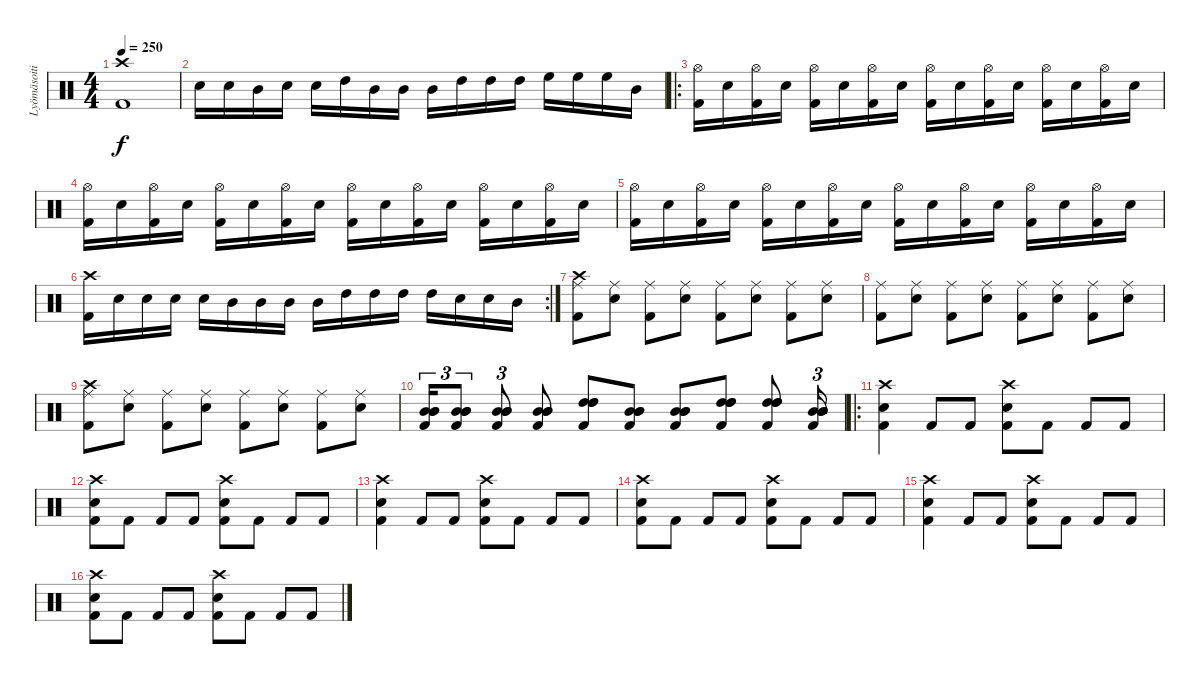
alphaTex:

\track ("Lyömäsoitin" "Lyömäsoiti") {instrument percussion}
\staff {score}
\articulation defaults
\ts (4 4)
\tempo 250
\clef neutral
\ks c
("Crash high (hit)" "Kick (hit) 2").1{dy f} |
"Electric Snare (hit)".16 "Electric Snare (hit)".16 "Mid Tom (hit)".16 "Electric Snare (hit)".16 "Electric Snare (hit)".16 "High Tom (hit)".16 "Mid Tom (hit)".16 "Mid Tom (hit)".16 "Mid Tom (hit)".16 "High Tom (hit)".16 "High Tom (hit)".16 "High Tom (hit)".16 "High Floor Tom (hit)".16 "High Floor Tom (hit)".16 "High Floor Tom (hit)".16 "Mid Tom (hit)".16 |
\ro
("Hi-Hat (open)" "Kick (hit) 2").16 "Electric Snare (hit)".16 ("Hi-Hat (open)" "Kick (hit) 2").16 "Electric Snare (hit)".16 ("Hi-Hat (open)" "Kick (hit) 2").16 "Electric Snare (hit)".16 ("Hi-Hat (open)" "Kick (hit) 2").16 "Electric Snare (hit)".16 ("Hi-Hat (open)" "Kick (hit) 2").16 "Electric Snare (hit)".16 ("Hi-Hat (open)" "Kick (hit) 2").16 "Electric Snare (hit)".16 ("Hi-Hat (open)" "Kick (hit) 2").16 "Electric Snare (hit)".16 ("Hi-Hat (open)" "Kick (hit) 2").16 "Electric Snare (hit)".16 |
("Hi-Hat (open)" "Kick (hit) 2").16 "Electric Snare (hit)".16 ("Hi-Hat (open)" "Kick (hit) 2").16 "Electric Snare (hit)".16 ("Hi-Hat (open)" "Kick (hit) 2").16 "Electric Snare (hit)".16 ("Hi-Hat (open)" "Kick (hit) 2").16 "Electric Snare (hit)".16 ("Hi-Hat (open)" "Kick (hit) 2").16 "Electric Snare (hit)".16 ("Hi-Hat (open)" "Kick (hit) 2").16 "Electric Snare (hit)".16 ("Hi-Hat (open)" "Kick (hit) 2").16 "Electric Snare (hit)".16 ("Hi-Hat (open)" "Kick (hit) 2").16 "Electric Snare (hit)".16 |
("Hi-Hat (open)" "Kick (hit) 2").16 "Electric Snare (hit)".16 ("Hi-Hat (open)" "Kick (hit) 2").16 "Electric Snare (hit)".16 ("Hi-Hat (open)" "Kick (hit) 2").16 "Electric Snare (hit)".16 ("Hi-Hat (open)" "Kick (hit) 2").16 "Electric Snare (hit)".16 ("Hi-Hat (open)" "Kick (hit) 2").16 "Electric Snare (hit)".16 ("Hi-Hat (open)" "Kick (hit) 2").16 "Electric Snare (hit)".16 ("Hi-Hat (open)" "Kick (hit) 2").16 "Electric Snare (hit)".16 ("Hi-Hat (open)" "Kick (hit) 2").16 "Electric Snare (hit)".16 |
\rc 2
("Crash high (hit)" "Kick (hit) 2").16 "Electric Snare (hit)".16 "Electric Snare (hit)".16 "Electric Snare (hit)".16 "Electric Snare (hit)".16 "Mid Tom (hit)".16 "Mid Tom (hit)".16 "Mid Tom (hit)".16 "Mid Tom (hit)".16 "High Tom (hit)".16 "High Tom (hit)".16 "High Tom (hit)".16 "High Tom (hit)".16 "Electric Snare (hit)".16 "Electric Snare (hit)".16 "Mid Tom (hit)".16 |
("Crash high (hit)" "Ride (middle)" "Kick (hit) 2").8 ("Ride (middle)" "Electric Snare (hit)").8 ("Ride (middle)" "Kick (hit) 2").8 ("Ride (middle)" "Electric Snare (hit)").8 ("Ride (middle)" "Kick (hit) 2").8 ("Ride (middle)" "Electric Snare (hit)").8 ("Ride (middle)" "Kick (hit) 2").8 ("Ride (middle)" "Electric Snare (hit)").8 |
("Ride (middle)" "Kick (hit) 2").8 ("Ride (middle)" "Electric Snare (hit)").8 ("Ride (middle)" "Kick (hit) 2").8 ("Ride (middle)" "Electric Snare (hit)").8 ("Ride (middle)" "Kick (hit) 2").8 ("Ride (middle)" "Electric Snare (hit)").8 ("Ride (middle)" "Kick (hit) 2").8 ("Ride (middle)" "Electric Snare (hit)").8 |
("Crash high (hit)" "Ride (middle)" "Kick (hit) 2").8 ("Ride (middle)" "Electric Snare (hit)").8 ("Ride (middle)" "Kick (hit) 2").8 ("Ride (middle)" "Electric Snare (hit)").8 ("Ride (middle)" "Kick (hit) 2").8 ("Ride (middle)" "Electric Snare (hit)").8 ("Ride (middle)" "Kick (hit) 2").8 ("Ride (middle)" "Electric Snare (hit)").8 |
("Kick (hit) 2" "Mid Tom (hit)" "Mid Tom (hit)" "Mid Tom (hit)").16{tu (3 2)} ("Kick (hit) 2" "Mid Tom (hit)" "Mid Tom (hit)" "Mid Tom (hit)").8{tu (3 2)} ("Kick (hit) 2" "Mid Tom (hit)" "Mid Tom (hit)" "Mid Tom (hit)").8{tu (3 2)} ("Kick (hit) 2" "Mid Tom (hit)" "Mid Tom (hit)" "Mid Tom (hit)").8 ("Kick (hit) 2" "High Tom (hit)" "High Tom (hit)" "High Tom (hit)").8 ("Kick (hit) 2" "Mid Tom (hit)" "Mid Tom (hit)" "Mid Tom (hit)").8 ("Kick (hit) 2" "Mid Tom (hit)" "Mid Tom (hit)" "Mid Tom (hit)").8 ("Kick (hit) 2" "High Tom (hit)" "High Tom (hit)" "High Tom (hit)").8 ("Kick (hit) 2" "High Tom (hit)" "High Tom (hit)" "High Tom (hit)").8 ("Kick (hit) 2" "Mid Tom (hit)" "Mid Tom (hit)" "Mid Tom (hit)").16{tu (3 2)} |
\ro
("Electric Snare (hit)" "Crash high (hit)" "Kick (hit) 2").4 "Kick (hit) 2".8 "Kick (hit) 2".8 ("Crash high (hit)" "Electric Snare (hit)" "Kick (hit) 2").8 "Kick (hit) 2".8 "Kick (hit) 2".8 "Kick (hit) 2".8 |
("Electric Snare (hit)" "Crash high (hit)" "Kick (hit) 2").8 "Kick (hit) 2".8 "Kick (hit) 2".8 "Kick (hit) 2".8 ("Crash high (hit)" "Electric Snare (hit)" "Kick (hit) 2").8 "Kick (hit) 2".8 "Kick (hit) 2".8 "Kick (hit) 2".8 |
("Electric Snare (hit)" "Crash high (hit)" "Kick (hit) 2").4 "Kick (hit) 2".8 "Kick (hit) 2".8 ("Crash high (hit)" "Electric Snare (hit)" "Kick (hit) 2").8 "Kick (hit) 2".8 "Kick (hit) 2".8 "Kick (hit) 2".8 |
("Electric Snare (hit)" "Crash high (hit)" "Kick (hit) 2").8 "Kick (hit) 2".8 "Kick (hit) 2".8 "Kick (hit) 2".8 ("Crash high (hit)" "Electric Snare (hit)" "Kick (hit) 2").8 "Kick (hit) 2".8 "Kick (hit) 2".8 "Kick (hit) 2".8 |
("Electric Snare (hit)" "Crash high (hit)" "Kick (hit) 2").4 "Kick (hit) 2".8 "Kick (hit) 2".8 ("Crash high (hit)" "Electric Snare (hit)" "Kick (hit) 2").8 "Kick (hit) 2".8 "Kick (hit) 2".8 "Kick (hit) 2".8 |
("Electric Snare (hit)" "Crash high (hit)" "Kick (hit) 2").8 "Kick (hit) 2".8 "Kick (hit) 2".8 "Kick (hit) 2".8 ("Crash high (hit)" "Electric Snare (hit)" "Kick (hit) 2").8 "Kick (hit) 2".8 "Kick (hit) 2".8 "Kick (hit) 2".8
